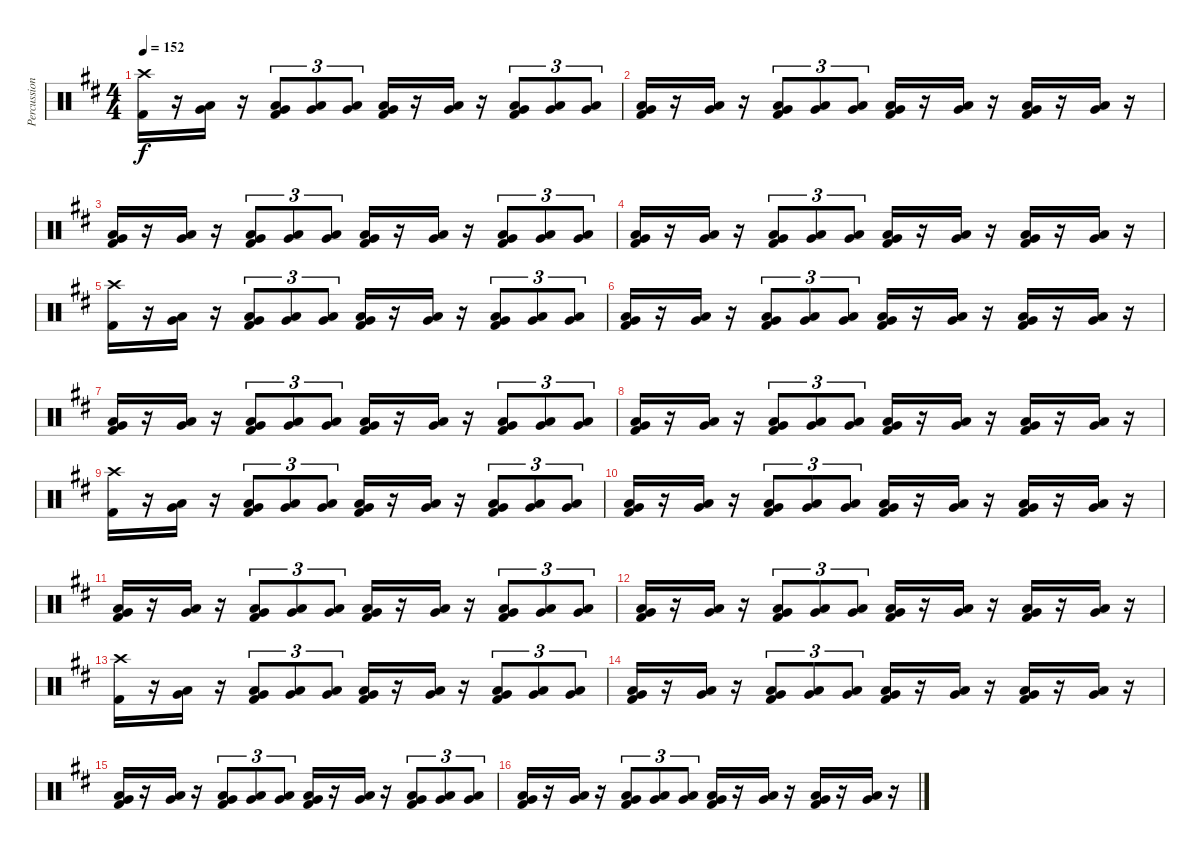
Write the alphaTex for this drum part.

\track ("Percussion" "Percussion") {instrument percussion}
\staff {score}
\articulation defaults
\ts (4 4)
\tempo 152
\clef neutral
\ks d
("Crash high (hit)" "Kick (hit) 2").16{dy f} r.16 ("Very Low Tom (hit)" "Low Tom (hit)").16 r.16 ("Very Low Tom (hit)" "Low Tom (hit)" "Kick (hit) 2").8{tu (3 2)} ("Very Low Tom (hit)" "Low Tom (hit)").8{tu (3 2)} ("Very Low Tom (hit)" "Low Tom (hit)").8{tu (3 2)} ("Very Low Tom (hit)" "Low Tom (hit)" "Kick (hit) 2").16 r.16 ("Very Low Tom (hit)" "Low Tom (hit)").16 r.16 ("Very Low Tom (hit)" "Low Tom (hit)" "Kick (hit) 2").8{tu (3 2)} ("Very Low Tom (hit)" "Low Tom (hit)").8{tu (3 2)} ("Very Low Tom (hit)" "Low Tom (hit)").8{tu (3 2)} |
("Very Low Tom (hit)" "Low Tom (hit)" "Kick (hit) 2").16 r.16 ("Very Low Tom (hit)" "Low Tom (hit)").16 r.16 ("Very Low Tom (hit)" "Low Tom (hit)" "Kick (hit) 2").8{tu (3 2)} ("Very Low Tom (hit)" "Low Tom (hit)").8{tu (3 2)} ("Very Low Tom (hit)" "Low Tom (hit)").8{tu (3 2)} ("Very Low Tom (hit)" "Low Tom (hit)" "Kick (hit) 2").16 r.16 ("Very Low Tom (hit)" "Low Tom (hit)").16 r.16 ("Very Low Tom (hit)" "Low Tom (hit)" "Kick (hit) 2").16 r.16 ("Very Low Tom (hit)" "Low Tom (hit)").16 r.16 |
("Very Low Tom (hit)" "Low Tom (hit)" "Kick (hit) 2").16 r.16 ("Very Low Tom (hit)" "Low Tom (hit)").16 r.16 ("Very Low Tom (hit)" "Low Tom (hit)" "Kick (hit) 2").8{tu (3 2)} ("Very Low Tom (hit)" "Low Tom (hit)").8{tu (3 2)} ("Very Low Tom (hit)" "Low Tom (hit)").8{tu (3 2)} ("Very Low Tom (hit)" "Low Tom (hit)" "Kick (hit) 2").16 r.16 ("Very Low Tom (hit)" "Low Tom (hit)").16 r.16 ("Very Low Tom (hit)" "Low Tom (hit)" "Kick (hit) 2").8{tu (3 2)} ("Very Low Tom (hit)" "Low Tom (hit)").8{tu (3 2)} ("Very Low Tom (hit)" "Low Tom (hit)").8{tu (3 2)} |
("Very Low Tom (hit)" "Low Tom (hit)" "Kick (hit) 2").16 r.16 ("Very Low Tom (hit)" "Low Tom (hit)").16 r.16 ("Very Low Tom (hit)" "Low Tom (hit)" "Kick (hit) 2").8{tu (3 2)} ("Very Low Tom (hit)" "Low Tom (hit)").8{tu (3 2)} ("Very Low Tom (hit)" "Low Tom (hit)").8{tu (3 2)} ("Very Low Tom (hit)" "Low Tom (hit)" "Kick (hit) 2").16 r.16 ("Very Low Tom (hit)" "Low Tom (hit)").16 r.16 ("Very Low Tom (hit)" "Low Tom (hit)" "Kick (hit) 2").16 r.16 ("Very Low Tom (hit)" "Low Tom (hit)").16 r.16 |
("Crash high (hit)" "Kick (hit) 2").16 r.16 ("Very Low Tom (hit)" "Low Tom (hit)").16 r.16 ("Very Low Tom (hit)" "Low Tom (hit)" "Kick (hit) 2").8{tu (3 2)} ("Very Low Tom (hit)" "Low Tom (hit)").8{tu (3 2)} ("Very Low Tom (hit)" "Low Tom (hit)").8{tu (3 2)} ("Very Low Tom (hit)" "Low Tom (hit)" "Kick (hit) 2").16 r.16 ("Very Low Tom (hit)" "Low Tom (hit)").16 r.16 ("Very Low Tom (hit)" "Low Tom (hit)" "Kick (hit) 2").8{tu (3 2)} ("Very Low Tom (hit)" "Low Tom (hit)").8{tu (3 2)} ("Very Low Tom (hit)" "Low Tom (hit)").8{tu (3 2)} |
("Very Low Tom (hit)" "Low Tom (hit)" "Kick (hit) 2").16 r.16 ("Very Low Tom (hit)" "Low Tom (hit)").16 r.16 ("Very Low Tom (hit)" "Low Tom (hit)" "Kick (hit) 2").8{tu (3 2)} ("Very Low Tom (hit)" "Low Tom (hit)").8{tu (3 2)} ("Very Low Tom (hit)" "Low Tom (hit)").8{tu (3 2)} ("Very Low Tom (hit)" "Low Tom (hit)" "Kick (hit) 2").16 r.16 ("Very Low Tom (hit)" "Low Tom (hit)").16 r.16 ("Very Low Tom (hit)" "Low Tom (hit)" "Kick (hit) 2").16 r.16 ("Very Low Tom (hit)" "Low Tom (hit)").16 r.16 |
("Very Low Tom (hit)" "Low Tom (hit)" "Kick (hit) 2").16 r.16 ("Very Low Tom (hit)" "Low Tom (hit)").16 r.16 ("Very Low Tom (hit)" "Low Tom (hit)" "Kick (hit) 2").8{tu (3 2)} ("Very Low Tom (hit)" "Low Tom (hit)").8{tu (3 2)} ("Very Low Tom (hit)" "Low Tom (hit)").8{tu (3 2)} ("Very Low Tom (hit)" "Low Tom (hit)" "Kick (hit) 2").16 r.16 ("Very Low Tom (hit)" "Low Tom (hit)").16 r.16 ("Very Low Tom (hit)" "Low Tom (hit)" "Kick (hit) 2").8{tu (3 2)} ("Very Low Tom (hit)" "Low Tom (hit)").8{tu (3 2)} ("Very Low Tom (hit)" "Low Tom (hit)").8{tu (3 2)} |
("Very Low Tom (hit)" "Low Tom (hit)" "Kick (hit) 2").16 r.16 ("Very Low Tom (hit)" "Low Tom (hit)").16 r.16 ("Very Low Tom (hit)" "Low Tom (hit)" "Kick (hit) 2").8{tu (3 2)} ("Very Low Tom (hit)" "Low Tom (hit)").8{tu (3 2)} ("Very Low Tom (hit)" "Low Tom (hit)").8{tu (3 2)} ("Very Low Tom (hit)" "Low Tom (hit)" "Kick (hit) 2").16 r.16 ("Very Low Tom (hit)" "Low Tom (hit)").16 r.16 ("Very Low Tom (hit)" "Low Tom (hit)" "Kick (hit) 2").16 r.16 ("Very Low Tom (hit)" "Low Tom (hit)").16 r.16 |
("Crash high (hit)" "Kick (hit) 2").16 r.16 ("Very Low Tom (hit)" "Low Tom (hit)").16 r.16 ("Very Low Tom (hit)" "Low Tom (hit)" "Kick (hit) 2").8{tu (3 2)} ("Very Low Tom (hit)" "Low Tom (hit)").8{tu (3 2)} ("Very Low Tom (hit)" "Low Tom (hit)").8{tu (3 2)} ("Very Low Tom (hit)" "Low Tom (hit)" "Kick (hit) 2").16 r.16 ("Very Low Tom (hit)" "Low Tom (hit)").16 r.16 ("Very Low Tom (hit)" "Low Tom (hit)" "Kick (hit) 2").8{tu (3 2)} ("Very Low Tom (hit)" "Low Tom (hit)").8{tu (3 2)} ("Very Low Tom (hit)" "Low Tom (hit)").8{tu (3 2)} |
("Very Low Tom (hit)" "Low Tom (hit)" "Kick (hit) 2").16 r.16 ("Very Low Tom (hit)" "Low Tom (hit)").16 r.16 ("Very Low Tom (hit)" "Low Tom (hit)" "Kick (hit) 2").8{tu (3 2)} ("Very Low Tom (hit)" "Low Tom (hit)").8{tu (3 2)} ("Very Low Tom (hit)" "Low Tom (hit)").8{tu (3 2)} ("Very Low Tom (hit)" "Low Tom (hit)" "Kick (hit) 2").16 r.16 ("Very Low Tom (hit)" "Low Tom (hit)").16 r.16 ("Very Low Tom (hit)" "Low Tom (hit)" "Kick (hit) 2").16 r.16 ("Very Low Tom (hit)" "Low Tom (hit)").16 r.16 |
("Very Low Tom (hit)" "Low Tom (hit)" "Kick (hit) 2").16 r.16 ("Very Low Tom (hit)" "Low Tom (hit)").16 r.16 ("Very Low Tom (hit)" "Low Tom (hit)" "Kick (hit) 2").8{tu (3 2)} ("Very Low Tom (hit)" "Low Tom (hit)").8{tu (3 2)} ("Very Low Tom (hit)" "Low Tom (hit)").8{tu (3 2)} ("Very Low Tom (hit)" "Low Tom (hit)" "Kick (hit) 2").16 r.16 ("Very Low Tom (hit)" "Low Tom (hit)").16 r.16 ("Very Low Tom (hit)" "Low Tom (hit)" "Kick (hit) 2").8{tu (3 2)} ("Very Low Tom (hit)" "Low Tom (hit)").8{tu (3 2)} ("Very Low Tom (hit)" "Low Tom (hit)").8{tu (3 2)} |
("Very Low Tom (hit)" "Low Tom (hit)" "Kick (hit) 2").16 r.16 ("Very Low Tom (hit)" "Low Tom (hit)").16 r.16 ("Very Low Tom (hit)" "Low Tom (hit)" "Kick (hit) 2").8{tu (3 2)} ("Very Low Tom (hit)" "Low Tom (hit)").8{tu (3 2)} ("Very Low Tom (hit)" "Low Tom (hit)").8{tu (3 2)} ("Very Low Tom (hit)" "Low Tom (hit)" "Kick (hit) 2").16 r.16 ("Very Low Tom (hit)" "Low Tom (hit)").16 r.16 ("Very Low Tom (hit)" "Low Tom (hit)" "Kick (hit) 2").16 r.16 ("Very Low Tom (hit)" "Low Tom (hit)").16 r.16 |
("Crash high (hit)" "Kick (hit) 2").16 r.16 ("Very Low Tom (hit)" "Low Tom (hit)").16 r.16 ("Very Low Tom (hit)" "Low Tom (hit)" "Kick (hit) 2").8{tu (3 2)} ("Very Low Tom (hit)" "Low Tom (hit)").8{tu (3 2)} ("Very Low Tom (hit)" "Low Tom (hit)").8{tu (3 2)} ("Very Low Tom (hit)" "Low Tom (hit)" "Kick (hit) 2").16 r.16 ("Very Low Tom (hit)" "Low Tom (hit)").16 r.16 ("Very Low Tom (hit)" "Low Tom (hit)" "Kick (hit) 2").8{tu (3 2)} ("Very Low Tom (hit)" "Low Tom (hit)").8{tu (3 2)} ("Very Low Tom (hit)" "Low Tom (hit)").8{tu (3 2)} |
("Very Low Tom (hit)" "Low Tom (hit)" "Kick (hit) 2").16 r.16 ("Very Low Tom (hit)" "Low Tom (hit)").16 r.16 ("Very Low Tom (hit)" "Low Tom (hit)" "Kick (hit) 2").8{tu (3 2)} ("Very Low Tom (hit)" "Low Tom (hit)").8{tu (3 2)} ("Very Low Tom (hit)" "Low Tom (hit)").8{tu (3 2)} ("Very Low Tom (hit)" "Low Tom (hit)" "Kick (hit) 2").16 r.16 ("Very Low Tom (hit)" "Low Tom (hit)").16 r.16 ("Very Low Tom (hit)" "Low Tom (hit)" "Kick (hit) 2").16 r.16 ("Very Low Tom (hit)" "Low Tom (hit)").16 r.16 |
("Very Low Tom (hit)" "Low Tom (hit)" "Kick (hit) 2").16 r.16 ("Very Low Tom (hit)" "Low Tom (hit)").16 r.16 ("Very Low Tom (hit)" "Low Tom (hit)" "Kick (hit) 2").8{tu (3 2)} ("Very Low Tom (hit)" "Low Tom (hit)").8{tu (3 2)} ("Very Low Tom (hit)" "Low Tom (hit)").8{tu (3 2)} ("Very Low Tom (hit)" "Low Tom (hit)" "Kick (hit) 2").16 r.16 ("Very Low Tom (hit)" "Low Tom (hit)").16 r.16 ("Very Low Tom (hit)" "Low Tom (hit)" "Kick (hit) 2").8{tu (3 2)} ("Very Low Tom (hit)" "Low Tom (hit)").8{tu (3 2)} ("Very Low Tom (hit)" "Low Tom (hit)").8{tu (3 2)} |
("Very Low Tom (hit)" "Low Tom (hit)" "Kick (hit) 2").16 r.16 ("Very Low Tom (hit)" "Low Tom (hit)").16 r.16 ("Very Low Tom (hit)" "Low Tom (hit)" "Kick (hit) 2").8{tu (3 2)} ("Very Low Tom (hit)" "Low Tom (hit)").8{tu (3 2)} ("Very Low Tom (hit)" "Low Tom (hit)").8{tu (3 2)} ("Very Low Tom (hit)" "Low Tom (hit)" "Kick (hit) 2").16 r.16 ("Very Low Tom (hit)" "Low Tom (hit)").16 r.16 ("Very Low Tom (hit)" "Low Tom (hit)" "Kick (hit) 2").16 r.16 ("Very Low Tom (hit)" "Low Tom (hit)").16 r.16
